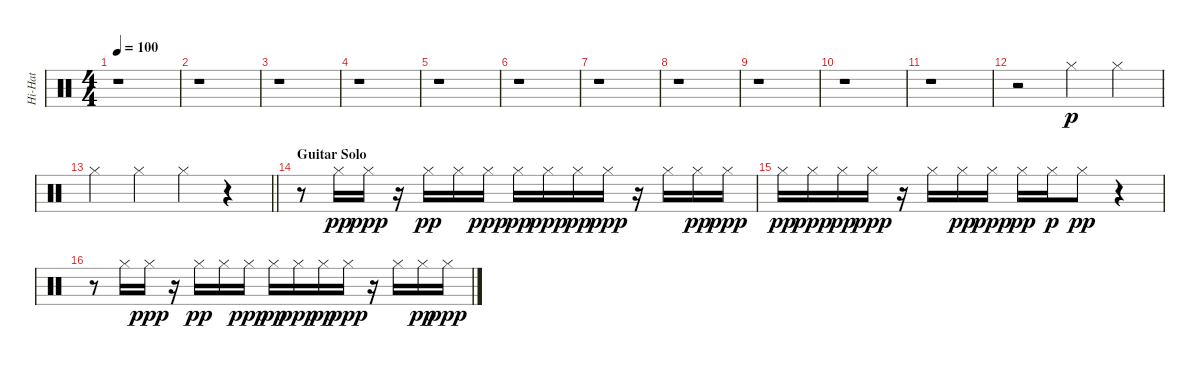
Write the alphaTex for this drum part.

\track ("Hi-Hat" "Hi-Hat") {instrument percussion}
\staff {score}
\articulation defaults
\ts (4 4)
\tempo 100
\clef neutral
\ks c
r.1{dy ppp} |
r.1 |
r.1 |
r.1 |
r.1 |
r.1 |
r.1 |
r.1 |
r.1 |
r.1 |
r.1 |
r.2 "Hi-Hat (closed)".4{dy p} "Hi-Hat (closed)".4 |
\barLineRight lightlight "Hi-Hat (closed)".4 "Hi-Hat (closed)".4 "Hi-Hat (closed)".4
r.4 |
\section ("" "Guitar Solo")
r.8 "Hi-Hat (closed)".16{dy pp} "Hi-Hat (closed)".16{dy ppp} r.16 "Hi-Hat (closed)".16{dy pp} "Hi-Hat (closed)".16 "Hi-Hat (closed)".16{dy ppp} "Hi-Hat (closed)".16{dy pp} "Hi-Hat (closed)".16{dy ppp} "Hi-Hat (closed)".16{dy pp} "Hi-Hat (closed)".16{dy ppp} r.16 "Hi-Hat (closed)".16 "Hi-Hat (closed)".16{dy pp} "Hi-Hat (closed)".16{dy ppp} |
"Hi-Hat (closed)".16{dy pp} "Hi-Hat (closed)".16{dy ppp} "Hi-Hat (closed)".16{dy pp} "Hi-Hat (closed)".16{dy ppp} r.16 "Hi-Hat (closed)".16 "Hi-Hat (closed)".16{dy pp} "Hi-Hat (closed)".16{dy ppp} "Hi-Hat (closed)".16{dy pp} "Hi-Hat (closed)".16{dy p} "Hi-Hat (closed)".8{dy pp} r.4 |
r.8 "Hi-Hat (closed)".16 "Hi-Hat (closed)".16{dy ppp} r.16 "Hi-Hat (closed)".16{dy pp} "Hi-Hat (closed)".16 "Hi-Hat (closed)".16{dy ppp} "Hi-Hat (closed)".16{dy pp} "Hi-Hat (closed)".16{dy ppp} "Hi-Hat (closed)".16{dy pp} "Hi-Hat (closed)".16{dy ppp} r.16 "Hi-Hat (closed)".16 "Hi-Hat (closed)".16{dy pp} "Hi-Hat (closed)".16{dy ppp}
